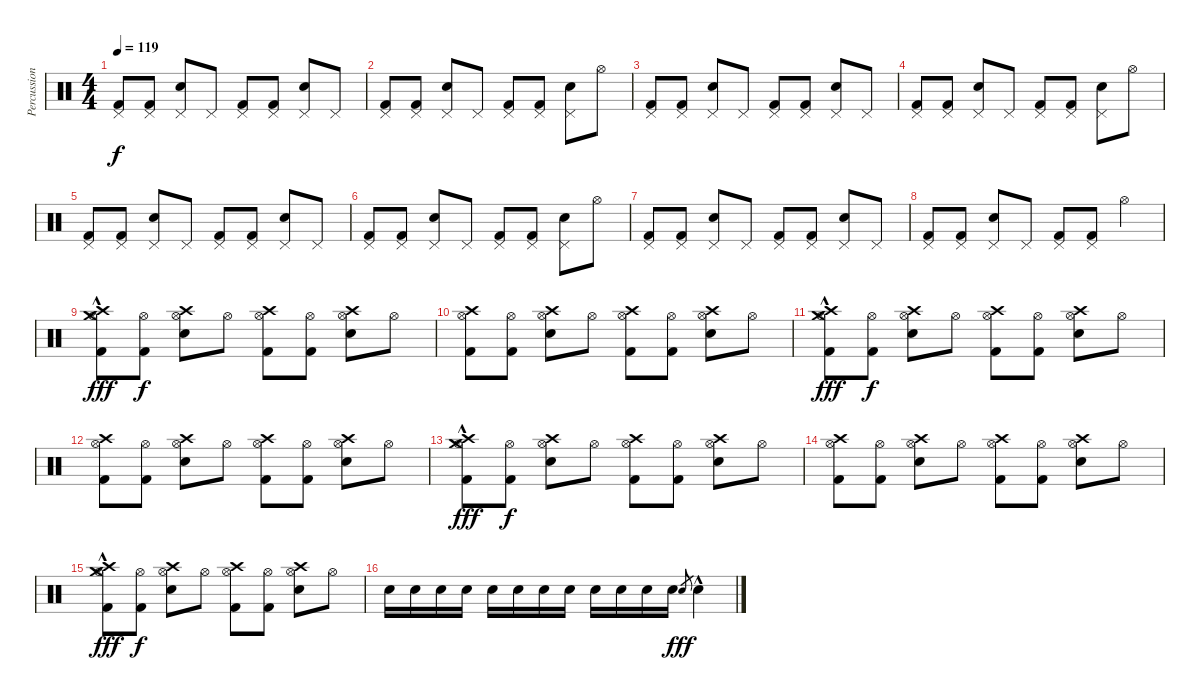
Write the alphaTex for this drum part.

\track ("Percussion" "Percussion") {instrument percussion}
\staff {score}
\articulation defaults
\ts (4 4)
\tempo 119
\clef neutral
\ks c
("Pedal Hi-Hat (hit)" "Kick (hit) 2").8{dy f} ("Pedal Hi-Hat (hit)" "Kick (hit) 2").8 ("Pedal Hi-Hat (hit)" "Electric Snare (hit)").8 "Pedal Hi-Hat (hit)".8 ("Pedal Hi-Hat (hit)" "Kick (hit) 2").8 ("Pedal Hi-Hat (hit)" "Kick (hit) 2").8 ("Pedal Hi-Hat (hit)" "Electric Snare (hit)").8 "Pedal Hi-Hat (hit)".8 |
("Pedal Hi-Hat (hit)" "Kick (hit) 2").8 ("Pedal Hi-Hat (hit)" "Kick (hit) 2").8 ("Pedal Hi-Hat (hit)" "Electric Snare (hit)").8 "Pedal Hi-Hat (hit)".8 ("Pedal Hi-Hat (hit)" "Kick (hit) 2").8 ("Pedal Hi-Hat (hit)" "Kick (hit) 2").8 ("Pedal Hi-Hat (hit)" "Electric Snare (hit)").8 "Hi-Hat (open)".8 |
("Pedal Hi-Hat (hit)" "Kick (hit) 2").8 ("Pedal Hi-Hat (hit)" "Kick (hit) 2").8 ("Pedal Hi-Hat (hit)" "Electric Snare (hit)").8 "Pedal Hi-Hat (hit)".8 ("Pedal Hi-Hat (hit)" "Kick (hit) 2").8 ("Pedal Hi-Hat (hit)" "Kick (hit) 2").8 ("Pedal Hi-Hat (hit)" "Electric Snare (hit)").8 "Pedal Hi-Hat (hit)".8 |
("Pedal Hi-Hat (hit)" "Kick (hit) 2").8 ("Pedal Hi-Hat (hit)" "Kick (hit) 2").8 ("Pedal Hi-Hat (hit)" "Electric Snare (hit)").8 "Pedal Hi-Hat (hit)".8 ("Pedal Hi-Hat (hit)" "Kick (hit) 2").8 ("Pedal Hi-Hat (hit)" "Kick (hit) 2").8 ("Pedal Hi-Hat (hit)" "Electric Snare (hit)").8 "Hi-Hat (open)".8 |
("Pedal Hi-Hat (hit)" "Kick (hit) 2").8 ("Pedal Hi-Hat (hit)" "Kick (hit) 2").8 ("Pedal Hi-Hat (hit)" "Electric Snare (hit)").8 "Pedal Hi-Hat (hit)".8 ("Pedal Hi-Hat (hit)" "Kick (hit) 2").8 ("Pedal Hi-Hat (hit)" "Kick (hit) 2").8 ("Pedal Hi-Hat (hit)" "Electric Snare (hit)").8 "Pedal Hi-Hat (hit)".8 |
("Pedal Hi-Hat (hit)" "Kick (hit) 2").8 ("Pedal Hi-Hat (hit)" "Kick (hit) 2").8 ("Pedal Hi-Hat (hit)" "Electric Snare (hit)").8 "Pedal Hi-Hat (hit)".8 ("Pedal Hi-Hat (hit)" "Kick (hit) 2").8 ("Pedal Hi-Hat (hit)" "Kick (hit) 2").8 ("Pedal Hi-Hat (hit)" "Electric Snare (hit)").8 "Hi-Hat (open)".8 |
("Pedal Hi-Hat (hit)" "Kick (hit) 2").8 ("Pedal Hi-Hat (hit)" "Kick (hit) 2").8 ("Pedal Hi-Hat (hit)" "Electric Snare (hit)").8 "Pedal Hi-Hat (hit)".8 ("Pedal Hi-Hat (hit)" "Kick (hit) 2").8 ("Pedal Hi-Hat (hit)" "Kick (hit) 2").8 ("Pedal Hi-Hat (hit)" "Electric Snare (hit)").8 "Pedal Hi-Hat (hit)".8 |
("Pedal Hi-Hat (hit)" "Kick (hit) 2").8 ("Pedal Hi-Hat (hit)" "Kick (hit) 2").8 ("Pedal Hi-Hat (hit)" "Electric Snare (hit)").8 "Pedal Hi-Hat (hit)".8 ("Pedal Hi-Hat (hit)" "Kick (hit) 2").8 ("Pedal Hi-Hat (hit)" "Kick (hit) 2").8 "Hi-Hat (open)".4 |
("Crash high (hit)"{hac} "Hi-Hat (open)"{hac} "Crash medium (hit)"{hac} "Kick (hit) 2").8{dy fff} ("Hi-Hat (open)" "Kick (hit) 2").8{dy f} ("Crash high (hit)" "Hi-Hat (open)" "Electric Snare (hit)").8 "Hi-Hat (open)".8 ("Crash high (hit)" "Hi-Hat (open)" "Kick (hit) 2").8 ("Hi-Hat (open)" "Kick (hit) 2").8 ("Crash high (hit)" "Hi-Hat (open)" "Electric Snare (hit)").8 "Hi-Hat (open)".8 |
("Crash high (hit)" "Hi-Hat (open)" "Kick (hit) 2").8 ("Hi-Hat (open)" "Kick (hit) 2").8 ("Crash high (hit)" "Hi-Hat (open)" "Electric Snare (hit)").8 "Hi-Hat (open)".8 ("Crash high (hit)" "Hi-Hat (open)" "Kick (hit) 2").8 ("Hi-Hat (open)" "Kick (hit) 2").8 ("Crash high (hit)" "Hi-Hat (open)" "Electric Snare (hit)").8 "Hi-Hat (open)".8 |
("Crash high (hit)"{hac} "Hi-Hat (open)"{hac} "Crash medium (hit)"{hac} "Kick (hit) 2").8{dy fff} ("Hi-Hat (open)" "Kick (hit) 2").8{dy f} ("Crash high (hit)" "Hi-Hat (open)" "Electric Snare (hit)").8 "Hi-Hat (open)".8 ("Crash high (hit)" "Hi-Hat (open)" "Kick (hit) 2").8 ("Hi-Hat (open)" "Kick (hit) 2").8 ("Crash high (hit)" "Hi-Hat (open)" "Electric Snare (hit)").8 "Hi-Hat (open)".8 |
("Crash high (hit)" "Hi-Hat (open)" "Kick (hit) 2").8 ("Hi-Hat (open)" "Kick (hit) 2").8 ("Crash high (hit)" "Hi-Hat (open)" "Electric Snare (hit)").8 "Hi-Hat (open)".8 ("Crash high (hit)" "Hi-Hat (open)" "Kick (hit) 2").8 ("Hi-Hat (open)" "Kick (hit) 2").8 ("Crash high (hit)" "Hi-Hat (open)" "Electric Snare (hit)").8 "Hi-Hat (open)".8 |
("Crash high (hit)"{hac} "Hi-Hat (open)"{hac} "Crash medium (hit)"{hac} "Kick (hit) 2").8{dy fff} ("Hi-Hat (open)" "Kick (hit) 2").8{dy f} ("Crash high (hit)" "Hi-Hat (open)" "Electric Snare (hit)").8 "Hi-Hat (open)".8 ("Crash high (hit)" "Hi-Hat (open)" "Kick (hit) 2").8 ("Hi-Hat (open)" "Kick (hit) 2").8 ("Crash high (hit)" "Hi-Hat (open)" "Electric Snare (hit)").8 "Hi-Hat (open)".8 |
("Crash high (hit)" "Hi-Hat (open)" "Kick (hit) 2").8 ("Hi-Hat (open)" "Kick (hit) 2").8 ("Crash high (hit)" "Hi-Hat (open)" "Electric Snare (hit)").8 "Hi-Hat (open)".8 ("Crash high (hit)" "Hi-Hat (open)" "Kick (hit) 2").8 ("Hi-Hat (open)" "Kick (hit) 2").8 ("Crash high (hit)" "Hi-Hat (open)" "Electric Snare (hit)").8 "Hi-Hat (open)".8 |
("Crash high (hit)"{hac} "Hi-Hat (open)"{hac} "Crash medium (hit)"{hac} "Kick (hit) 2").8{dy fff} ("Hi-Hat (open)" "Kick (hit) 2").8{dy f} ("Crash high (hit)" "Hi-Hat (open)" "Electric Snare (hit)").8 "Hi-Hat (open)".8 ("Crash high (hit)" "Hi-Hat (open)" "Kick (hit) 2").8 ("Hi-Hat (open)" "Kick (hit) 2").8 ("Crash high (hit)" "Hi-Hat (open)" "Electric Snare (hit)").8 "Hi-Hat (open)".8 |
"Electric Snare (hit)".16 "Electric Snare (hit)".16 "Electric Snare (hit)".16 "Electric Snare (hit)".16 "Electric Snare (hit)".16 "Electric Snare (hit)".16 "Electric Snare (hit)".16 "Electric Snare (hit)".16 "Electric Snare (hit)".16 "Electric Snare (hit)".16 "Electric Snare (hit)".16 "Electric Snare (hit)".16 "Electric Snare (hit)".8{gr dy fff} "Electric Snare (hit)"{hac}.4
